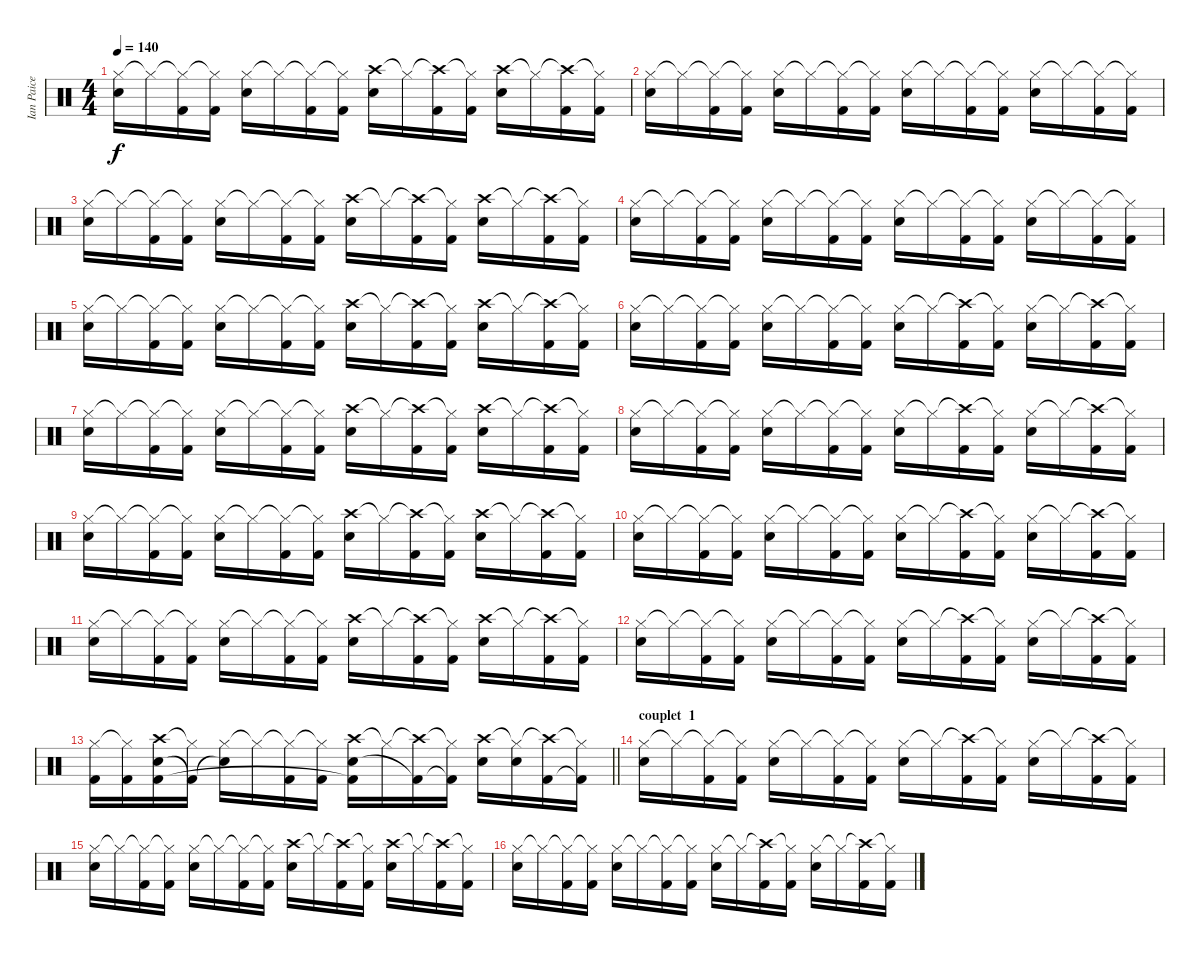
\track ("Ian Paice" "Ian Paice") {instrument percussion}
\staff {score}
\articulation defaults
\ts (4 4)
\tempo 140
\clef neutral
\ks c
("Hi-Hat (closed)" "Snare (hit) 2").16{dy f} "Hi-Hat (closed)"{t}.16 ("Hi-Hat (closed)"{t} "Kick (hit) 2").16 ("Hi-Hat (closed)"{t} "Kick (hit) 2").16 ("Hi-Hat (closed)" "Snare (hit) 2").16 "Hi-Hat (closed)"{t}.16 ("Hi-Hat (closed)"{t} "Kick (hit) 2").16 ("Hi-Hat (closed)"{t} "Kick (hit) 2").16 ("Crash high (hit)" "Snare (hit) 2").16 "Hi-Hat (closed)"{t}.16 ("Crash high (hit)"{t} "Kick (hit) 2").16 ("Hi-Hat (closed)"{t} "Kick (hit) 2").16 ("Crash high (hit)" "Snare (hit) 2").16 "Hi-Hat (closed)"{t}.16 ("Crash high (hit)"{t} "Kick (hit) 2").16 ("Hi-Hat (closed)"{t} "Kick (hit) 2").16 |
("Hi-Hat (closed)" "Snare (hit) 2").16 "Hi-Hat (closed)"{t}.16 ("Hi-Hat (closed)"{t} "Kick (hit) 2").16 ("Hi-Hat (closed)"{t} "Kick (hit) 2").16 ("Hi-Hat (closed)" "Snare (hit) 2").16 "Hi-Hat (closed)"{t}.16 ("Hi-Hat (closed)"{t} "Kick (hit) 2").16 ("Hi-Hat (closed)"{t} "Kick (hit) 2").16 ("Hi-Hat (closed)" "Snare (hit) 2").16 "Hi-Hat (closed)"{t}.16 ("Hi-Hat (closed)"{t} "Kick (hit) 2").16 ("Hi-Hat (closed)"{t} "Kick (hit) 2").16 ("Hi-Hat (closed)" "Snare (hit) 2").16 "Hi-Hat (closed)"{t}.16 ("Hi-Hat (closed)"{t} "Kick (hit) 2").16 ("Hi-Hat (closed)"{t} "Kick (hit) 2").16 |
("Hi-Hat (closed)" "Snare (hit) 2").16 "Hi-Hat (closed)"{t}.16 ("Hi-Hat (closed)"{t} "Kick (hit) 2").16 ("Hi-Hat (closed)"{t} "Kick (hit) 2").16 ("Hi-Hat (closed)" "Snare (hit) 2").16 "Hi-Hat (closed)"{t}.16 ("Hi-Hat (closed)"{t} "Kick (hit) 2").16 ("Hi-Hat (closed)"{t} "Kick (hit) 2").16 ("Crash high (hit)" "Snare (hit) 2").16 "Hi-Hat (closed)"{t}.16 ("Crash high (hit)"{t} "Kick (hit) 2").16 ("Hi-Hat (closed)"{t} "Kick (hit) 2").16 ("Crash high (hit)" "Snare (hit) 2").16 "Hi-Hat (closed)"{t}.16 ("Crash high (hit)"{t} "Kick (hit) 2").16 ("Hi-Hat (closed)"{t} "Kick (hit) 2").16 |
("Hi-Hat (closed)" "Snare (hit) 2").16 "Hi-Hat (closed)"{t}.16 ("Hi-Hat (closed)"{t} "Kick (hit) 2").16 ("Hi-Hat (closed)"{t} "Kick (hit) 2").16 ("Hi-Hat (closed)" "Snare (hit) 2").16 "Hi-Hat (closed)"{t}.16 ("Hi-Hat (closed)"{t} "Kick (hit) 2").16 ("Hi-Hat (closed)"{t} "Kick (hit) 2").16 ("Hi-Hat (closed)" "Snare (hit) 2").16 "Hi-Hat (closed)"{t}.16 ("Hi-Hat (closed)"{t} "Kick (hit) 2").16 ("Hi-Hat (closed)"{t} "Kick (hit) 2").16 ("Hi-Hat (closed)" "Snare (hit) 2").16 "Hi-Hat (closed)"{t}.16 ("Hi-Hat (closed)"{t} "Kick (hit) 2").16 ("Hi-Hat (closed)"{t} "Kick (hit) 2").16 |
("Hi-Hat (closed)" "Snare (hit) 2").16 "Hi-Hat (closed)"{t}.16 ("Hi-Hat (closed)"{t} "Kick (hit) 2").16 ("Hi-Hat (closed)"{t} "Kick (hit) 2").16 ("Hi-Hat (closed)" "Snare (hit) 2").16 "Hi-Hat (closed)"{t}.16 ("Hi-Hat (closed)"{t} "Kick (hit) 2").16 ("Hi-Hat (closed)"{t} "Kick (hit) 2").16 ("Crash high (hit)" "Snare (hit) 2").16 "Hi-Hat (closed)"{t}.16 ("Crash high (hit)"{t} "Kick (hit) 2").16 ("Hi-Hat (closed)"{t} "Kick (hit) 2").16 ("Crash high (hit)" "Snare (hit) 2").16 "Hi-Hat (closed)"{t}.16 ("Crash high (hit)"{t} "Kick (hit) 2").16 ("Hi-Hat (closed)"{t} "Kick (hit) 2").16 |
("Hi-Hat (closed)" "Snare (hit) 2").16 "Hi-Hat (closed)"{t}.16 ("Hi-Hat (closed)"{t} "Kick (hit) 2").16 ("Hi-Hat (closed)"{t} "Kick (hit) 2").16 ("Hi-Hat (closed)" "Snare (hit) 2").16 "Hi-Hat (closed)"{t}.16 ("Hi-Hat (closed)"{t} "Kick (hit) 2").16 ("Hi-Hat (closed)"{t} "Kick (hit) 2").16 ("Hi-Hat (closed)" "Snare (hit) 2").16 "Hi-Hat (closed)"{t}.16 ("Crash high (hit)"{t} "Kick (hit) 2").16 ("Hi-Hat (closed)"{t} "Kick (hit) 2").16 ("Hi-Hat (closed)" "Snare (hit) 2").16 "Hi-Hat (closed)"{t}.16 ("Crash high (hit)"{t} "Kick (hit) 2").16 ("Hi-Hat (closed)"{t} "Kick (hit) 2").16 |
("Hi-Hat (closed)" "Snare (hit) 2").16 "Hi-Hat (closed)"{t}.16 ("Hi-Hat (closed)"{t} "Kick (hit) 2").16 ("Hi-Hat (closed)"{t} "Kick (hit) 2").16 ("Hi-Hat (closed)" "Snare (hit) 2").16 "Hi-Hat (closed)"{t}.16 ("Hi-Hat (closed)"{t} "Kick (hit) 2").16 ("Hi-Hat (closed)"{t} "Kick (hit) 2").16 ("Crash high (hit)" "Snare (hit) 2").16 "Hi-Hat (closed)"{t}.16 ("Crash high (hit)"{t} "Kick (hit) 2").16 ("Hi-Hat (closed)"{t} "Kick (hit) 2").16 ("Crash high (hit)" "Snare (hit) 2").16 "Hi-Hat (closed)"{t}.16 ("Crash high (hit)"{t} "Kick (hit) 2").16 ("Hi-Hat (closed)"{t} "Kick (hit) 2").16 |
("Hi-Hat (closed)" "Snare (hit) 2").16 "Hi-Hat (closed)"{t}.16 ("Hi-Hat (closed)"{t} "Kick (hit) 2").16 ("Hi-Hat (closed)"{t} "Kick (hit) 2").16 ("Hi-Hat (closed)" "Snare (hit) 2").16 "Hi-Hat (closed)"{t}.16 ("Hi-Hat (closed)"{t} "Kick (hit) 2").16 ("Hi-Hat (closed)"{t} "Kick (hit) 2").16 ("Hi-Hat (closed)" "Snare (hit) 2").16 "Hi-Hat (closed)"{t}.16 ("Crash high (hit)"{t} "Kick (hit) 2").16 ("Hi-Hat (closed)"{t} "Kick (hit) 2").16 ("Hi-Hat (closed)" "Snare (hit) 2").16 "Hi-Hat (closed)"{t}.16 ("Crash high (hit)"{t} "Kick (hit) 2").16 ("Hi-Hat (closed)"{t} "Kick (hit) 2").16 |
("Hi-Hat (closed)" "Snare (hit) 2").16 "Hi-Hat (closed)"{t}.16 ("Hi-Hat (closed)"{t} "Kick (hit) 2").16 ("Hi-Hat (closed)"{t} "Kick (hit) 2").16 ("Hi-Hat (closed)" "Snare (hit) 2").16 "Hi-Hat (closed)"{t}.16 ("Hi-Hat (closed)"{t} "Kick (hit) 2").16 ("Hi-Hat (closed)"{t} "Kick (hit) 2").16 ("Crash high (hit)" "Snare (hit) 2").16 "Hi-Hat (closed)"{t}.16 ("Crash high (hit)"{t} "Kick (hit) 2").16 ("Hi-Hat (closed)"{t} "Kick (hit) 2").16 ("Crash high (hit)" "Snare (hit) 2").16 "Hi-Hat (closed)"{t}.16 ("Crash high (hit)"{t} "Kick (hit) 2").16 ("Hi-Hat (closed)"{t} "Kick (hit) 2").16 |
("Hi-Hat (closed)" "Snare (hit) 2").16 "Hi-Hat (closed)"{t}.16 ("Hi-Hat (closed)"{t} "Kick (hit) 2").16 ("Hi-Hat (closed)"{t} "Kick (hit) 2").16 ("Hi-Hat (closed)" "Snare (hit) 2").16 "Hi-Hat (closed)"{t}.16 ("Hi-Hat (closed)"{t} "Kick (hit) 2").16 ("Hi-Hat (closed)"{t} "Kick (hit) 2").16 ("Hi-Hat (closed)" "Snare (hit) 2").16 "Hi-Hat (closed)"{t}.16 ("Crash high (hit)"{t} "Kick (hit) 2").16 ("Hi-Hat (closed)"{t} "Kick (hit) 2").16 ("Hi-Hat (closed)" "Snare (hit) 2").16 "Hi-Hat (closed)"{t}.16 ("Crash high (hit)"{t} "Kick (hit) 2").16 ("Hi-Hat (closed)"{t} "Kick (hit) 2").16 |
("Hi-Hat (closed)" "Snare (hit) 2").16 "Hi-Hat (closed)"{t}.16 ("Hi-Hat (closed)"{t} "Kick (hit) 2").16 ("Hi-Hat (closed)"{t} "Kick (hit) 2").16 ("Hi-Hat (closed)" "Snare (hit) 2").16 "Hi-Hat (closed)"{t}.16 ("Hi-Hat (closed)"{t} "Kick (hit) 2").16 ("Hi-Hat (closed)"{t} "Kick (hit) 2").16 ("Crash high (hit)" "Snare (hit) 2").16 "Hi-Hat (closed)"{t}.16 ("Crash high (hit)"{t} "Kick (hit) 2").16 ("Hi-Hat (closed)"{t} "Kick (hit) 2").16 ("Crash high (hit)" "Snare (hit) 2").16 "Hi-Hat (closed)"{t}.16 ("Crash high (hit)"{t} "Kick (hit) 2").16 ("Hi-Hat (closed)"{t} "Kick (hit) 2").16 |
("Hi-Hat (closed)" "Snare (hit) 2").16 "Hi-Hat (closed)"{t}.16 ("Hi-Hat (closed)"{t} "Kick (hit) 2").16 ("Hi-Hat (closed)"{t} "Kick (hit) 2").16 ("Hi-Hat (closed)" "Snare (hit) 2").16 "Hi-Hat (closed)"{t}.16 ("Hi-Hat (closed)"{t} "Kick (hit) 2").16 ("Hi-Hat (closed)"{t} "Kick (hit) 2").16 ("Hi-Hat (closed)" "Snare (hit) 2").16 "Hi-Hat (closed)"{t}.16 ("Crash high (hit)"{t} "Kick (hit) 2").16 ("Hi-Hat (closed)"{t} "Kick (hit) 2").16 ("Hi-Hat (closed)" "Snare (hit) 2").16 "Hi-Hat (closed)"{t}.16 ("Crash high (hit)"{t} "Kick (hit) 2").16 ("Hi-Hat (closed)"{t} "Kick (hit) 2").16 |
\barLineRight lightlight
("Hi-Hat (closed)" "Kick (hit) 2").16 ("Hi-Hat (closed)"{t} "Kick (hit) 2").16 ("Crash high (hit)" "Snare (hit) 2" "Kick (hit) 2").16 ("Hi-Hat (closed)"{t} "Kick (hit) 2"{t}).16 ("Hi-Hat (closed)" "Snare (hit) 2"{t}).16 "Hi-Hat (closed)"{t}.16 ("Hi-Hat (closed)"{t} "Kick (hit) 2").16 ("Hi-Hat (closed)"{t} "Kick (hit) 2").16 ("Crash high (hit)" "Snare (hit) 2" "Kick (hit) 2"{t}).16 "Hi-Hat (closed)"{t}.16 ("Crash high (hit)"{t} "Kick (hit) 2"{t}).16 ("Hi-Hat (closed)"{t} "Kick (hit) 2"{t}).16 ("Crash high (hit)" "Snare (hit) 2").16 ("Hi-Hat (closed)"{t} "Snare (hit) 2").16 ("Crash high (hit)"{t} "Kick (hit) 2").16 ("Hi-Hat (closed)"{t} "Kick (hit) 2"{t}).16 |
\section ("" "couplet  1")
("Hi-Hat (closed)" "Snare (hit) 2").16 "Hi-Hat (closed)"{t}.16 ("Hi-Hat (closed)"{t} "Kick (hit) 2").16 ("Hi-Hat (closed)"{t} "Kick (hit) 2").16 ("Hi-Hat (closed)" "Snare (hit) 2").16 "Hi-Hat (closed)"{t}.16 ("Hi-Hat (closed)"{t} "Kick (hit) 2").16 ("Hi-Hat (closed)"{t} "Kick (hit) 2").16 ("Hi-Hat (closed)" "Snare (hit) 2").16 "Hi-Hat (closed)"{t}.16 ("Crash high (hit)"{t} "Kick (hit) 2").16 ("Hi-Hat (closed)"{t} "Kick (hit) 2").16 ("Hi-Hat (closed)" "Snare (hit) 2").16 "Hi-Hat (closed)"{t}.16 ("Crash high (hit)"{t} "Kick (hit) 2").16 ("Hi-Hat (closed)"{t} "Kick (hit) 2").16 |
("Hi-Hat (closed)" "Snare (hit) 2").16 "Hi-Hat (closed)"{t}.16 ("Hi-Hat (closed)"{t} "Kick (hit) 2").16 ("Hi-Hat (closed)"{t} "Kick (hit) 2").16 ("Hi-Hat (closed)" "Snare (hit) 2").16 "Hi-Hat (closed)"{t}.16 ("Hi-Hat (closed)"{t} "Kick (hit) 2").16 ("Hi-Hat (closed)"{t} "Kick (hit) 2").16 ("Crash high (hit)" "Snare (hit) 2").16 "Hi-Hat (closed)"{t}.16 ("Crash high (hit)"{t} "Kick (hit) 2").16 ("Hi-Hat (closed)"{t} "Kick (hit) 2").16 ("Crash high (hit)" "Snare (hit) 2").16 "Hi-Hat (closed)"{t}.16 ("Crash high (hit)"{t} "Kick (hit) 2").16 ("Hi-Hat (closed)"{t} "Kick (hit) 2").16 |
("Hi-Hat (closed)" "Snare (hit) 2").16 "Hi-Hat (closed)"{t}.16 ("Hi-Hat (closed)"{t} "Kick (hit) 2").16 ("Hi-Hat (closed)"{t} "Kick (hit) 2").16 ("Hi-Hat (closed)" "Snare (hit) 2").16 "Hi-Hat (closed)"{t}.16 ("Hi-Hat (closed)"{t} "Kick (hit) 2").16 ("Hi-Hat (closed)"{t} "Kick (hit) 2").16 ("Hi-Hat (closed)" "Snare (hit) 2").16 "Hi-Hat (closed)"{t}.16 ("Crash high (hit)"{t} "Kick (hit) 2").16 ("Hi-Hat (closed)"{t} "Kick (hit) 2").16 ("Hi-Hat (closed)" "Snare (hit) 2").16 "Hi-Hat (closed)"{t}.16 ("Crash high (hit)"{t} "Kick (hit) 2").16 ("Hi-Hat (closed)"{t} "Kick (hit) 2").16
